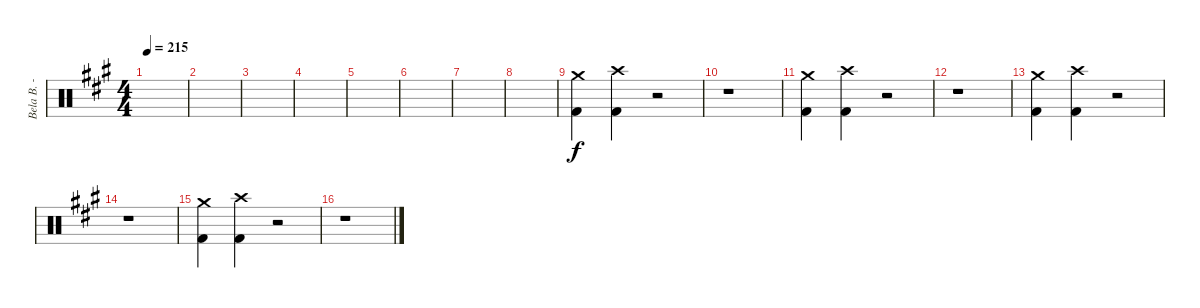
\track ("Bela B. - Schlagzeug" "Bela B. - ") {instrument percussion}
\staff {score}
\articulation defaults
\ts (4 4)
\tempo 215
\clef neutral
\ks a
|
|
|
|
|
|
|
|
("Crash medium (hit)" "Kick (hit) 2").4 ("Crash high (hit)" "Kick (hit) 2").4 r.2 |
r.1 |
("Crash medium (hit)" "Kick (hit) 2").4 ("Crash high (hit)" "Kick (hit) 2").4 r.2 |
r.1 |
("Crash medium (hit)" "Kick (hit) 2").4 ("Crash high (hit)" "Kick (hit) 2").4 r.2 |
r.1 |
("Crash medium (hit)" "Kick (hit) 2").4 ("Crash high (hit)" "Kick (hit) 2").4 r.2 |
r.1
